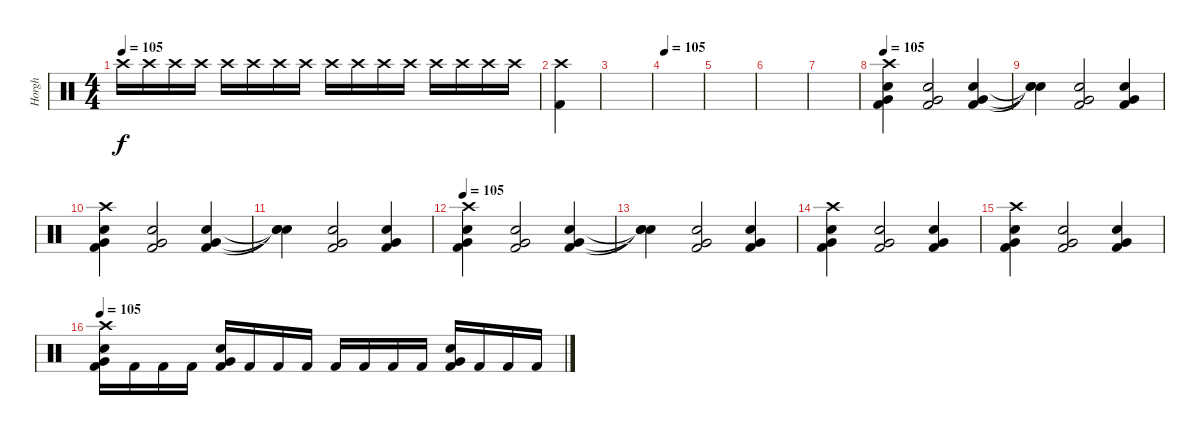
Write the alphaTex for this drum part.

\track ("Horgh" "Horgh") {instrument percussion}
\staff {score}
\articulation defaults
\ts (4 4)
\tempo 105
\clef neutral
\ks c "Crash high (hit)".16{dy f volume 2} "Crash high (hit)".16{volume 13} "Crash high (hit)".16 "Crash high (hit)".16 "Crash high (hit)".16 "Crash high (hit)".16 "Crash high (hit)".16 "Crash high (hit)".16 "Crash high (hit)".16 "Crash high (hit)".16 "Crash high (hit)".16 "Crash high (hit)".16 "Crash high (hit)".16 "Crash high (hit)".16{volume 13} "Crash high (hit)".16 "Crash high (hit)".16
|
("Crash high (hit)" "Kick (hit) 2").4 |
|
\tempo 105
|
|
|
|
\tempo 105
("Crash high (hit)" "Very Low Tom (hit)" "Electric Snare (hit)" "Kick (hit) 2").4 ("Very Low Tom (hit)" "Electric Snare (hit)" "Kick (hit) 2").2 ("Very Low Tom (hit)" "Electric Snare (hit)" "Kick (hit) 2").4 |
("Snare (hit)"{t} "Snare (hit)"{t} "Snare (hit)"{t}).4 ("Very Low Tom (hit)" "Electric Snare (hit)" "Kick (hit) 2").2 ("Very Low Tom (hit)" "Electric Snare (hit)" "Kick (hit) 2").4 |
("Crash high (hit)" "Very Low Tom (hit)" "Electric Snare (hit)" "Kick (hit) 2").4 ("Very Low Tom (hit)" "Electric Snare (hit)" "Kick (hit) 2").2 ("Very Low Tom (hit)" "Electric Snare (hit)" "Kick (hit) 2").4 |
("Snare (hit)"{t} "Snare (hit)"{t} "Snare (hit)"{t}).4 ("Very Low Tom (hit)" "Electric Snare (hit)" "Kick (hit) 2").2 ("Very Low Tom (hit)" "Electric Snare (hit)" "Kick (hit) 2").4 |
\tempo 105
("Crash high (hit)" "Very Low Tom (hit)" "Electric Snare (hit)" "Kick (hit) 2").4 ("Very Low Tom (hit)" "Electric Snare (hit)" "Kick (hit) 2").2 ("Very Low Tom (hit)" "Electric Snare (hit)" "Kick (hit) 2").4 |
("Snare (hit)"{t} "Snare (hit)"{t} "Snare (hit)"{t}).4 ("Very Low Tom (hit)" "Electric Snare (hit)" "Kick (hit) 2").2 ("Very Low Tom (hit)" "Electric Snare (hit)" "Kick (hit) 2").4 |
("Crash high (hit)" "Very Low Tom (hit)" "Electric Snare (hit)" "Kick (hit) 2").4 ("Very Low Tom (hit)" "Electric Snare (hit)" "Kick (hit) 2").2 ("Very Low Tom (hit)" "Electric Snare (hit)" "Kick (hit) 2").4 |
("Crash high (hit)" "Very Low Tom (hit)" "Electric Snare (hit)" "Kick (hit) 2").4 ("Very Low Tom (hit)" "Electric Snare (hit)" "Kick (hit) 2").2 ("Very Low Tom (hit)" "Electric Snare (hit)" "Kick (hit) 2").4 |
\tempo 105
("Crash high (hit)" "Very Low Tom (hit)" "Electric Snare (hit)" "Kick (hit) 2").16 "Kick (hit) 2".16 "Kick (hit) 2".16 "Kick (hit) 2".16 ("Electric Snare (hit)" "Very Low Tom (hit)" "Kick (hit) 2").16 "Kick (hit) 2".16 "Kick (hit) 2".16 "Kick (hit) 2".16 "Kick (hit) 2".16 "Kick (hit) 2".16 "Kick (hit) 2".16 "Kick (hit) 2".16 ("Very Low Tom (hit)" "Electric Snare (hit)" "Kick (hit) 2").16 "Kick (hit) 2".16 "Kick (hit) 2".16 "Kick (hit) 2".16
